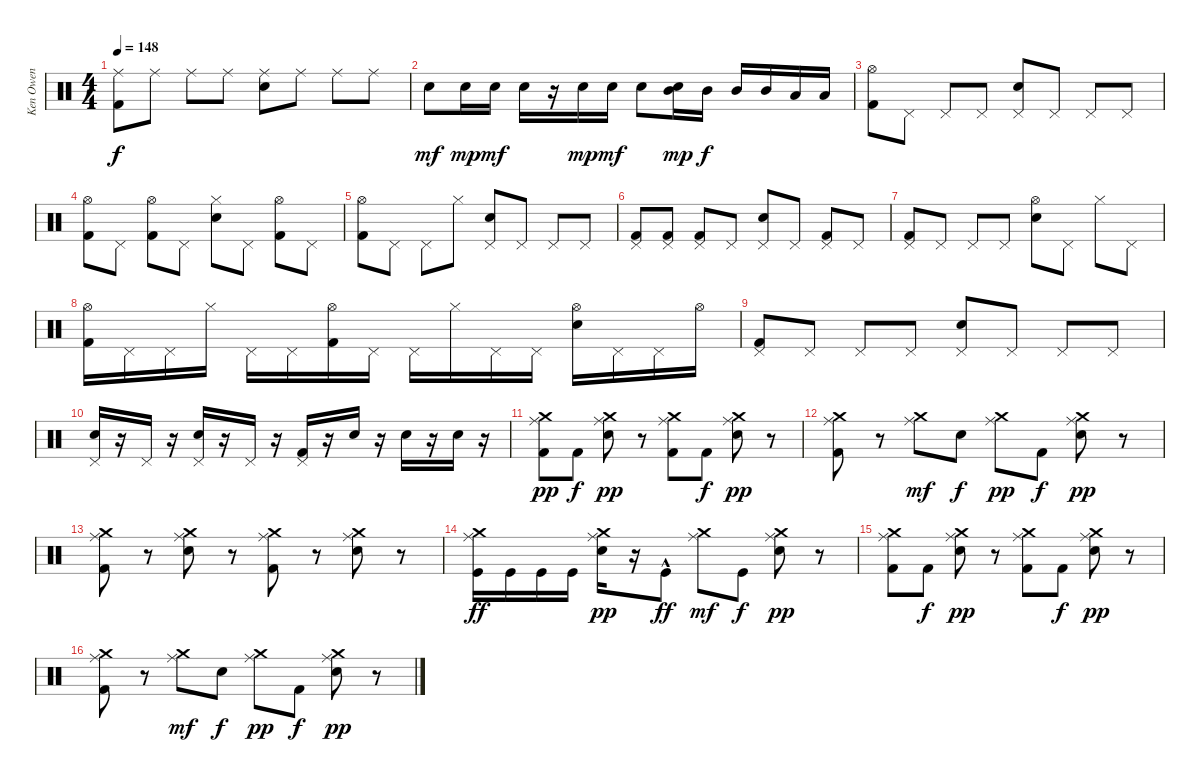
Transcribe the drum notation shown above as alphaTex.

\track ("Ken Owen" "Ken Owen") {instrument percussion}
\staff {score}
\articulation defaults
\ts (4 4)
\tempo 148
\clef neutral
\ks c
("Ride (middle)" "Kick (hit) 2").8{dy f} "Ride (middle)".8 "Ride (middle)".8 "Ride (middle)".8 ("Ride (middle)" "Electric Snare (hit)").8 "Ride (middle)".8 "Ride (middle)".8 "Ride (middle)".8 |
"Electric Snare (hit)".8{dy mf} "Electric Snare (hit)".16{dy mp} "Electric Snare (hit)".16{dy mf} "Electric Snare (hit)".16 r.16 "Electric Snare (hit)".16{dy mp} "Electric Snare (hit)".16{dy mf} "Electric Snare (hit)".8 ("Electric Snare (hit)" "Mid Tom (hit)").16{dy mp} "Mid Tom (hit)".16{dy f} "Mid Tom (hit)".16 "Mid Tom (hit)".16 "Low Tom (hit)".16 "Low Tom (hit)".16 |
("Hi-Hat (open)" "Kick (hit) 2").8{balance 8} "Pedal Hi-Hat (hit)".8 "Pedal Hi-Hat (hit)".8 "Pedal Hi-Hat (hit)".8 ("Pedal Hi-Hat (hit)" "Electric Snare (hit)").8 "Pedal Hi-Hat (hit)".8 "Pedal Hi-Hat (hit)".8 "Pedal Hi-Hat (hit)".8 |
("Hi-Hat (open)" "Kick (hit) 2").8 "Pedal Hi-Hat (hit)".8 ("Hi-Hat (open)" "Kick (hit) 2").8 "Pedal Hi-Hat (hit)".8 ("Hi-Hat (closed)" "Electric Snare (hit)").8 "Pedal Hi-Hat (hit)".8 ("Hi-Hat (open)" "Kick (hit) 2").8 "Pedal Hi-Hat (hit)".8 |
("Hi-Hat (open)" "Kick (hit) 2").8 "Pedal Hi-Hat (hit)".8 "Pedal Hi-Hat (hit)".8 "Hi-Hat (closed)".8 ("Pedal Hi-Hat (hit)" "Electric Snare (hit)").8 "Pedal Hi-Hat (hit)".8 "Pedal Hi-Hat (hit)".8 "Pedal Hi-Hat (hit)".8 |
("Pedal Hi-Hat (hit)" "Kick (hit) 2").8 ("Pedal Hi-Hat (hit)" "Kick (hit) 2").8 ("Pedal Hi-Hat (hit)" "Kick (hit) 2").8 "Pedal Hi-Hat (hit)".8 ("Pedal Hi-Hat (hit)" "Electric Snare (hit)").8 "Pedal Hi-Hat (hit)".8 ("Pedal Hi-Hat (hit)" "Kick (hit) 2").8 "Pedal Hi-Hat (hit)".8 |
("Pedal Hi-Hat (hit)" "Kick (hit) 2").8 "Pedal Hi-Hat (hit)".8 "Pedal Hi-Hat (hit)".8 "Pedal Hi-Hat (hit)".8 ("Hi-Hat (open)" "Electric Snare (hit)").8 "Pedal Hi-Hat (hit)".8 "Hi-Hat (closed)".8 "Pedal Hi-Hat (hit)".8 |
("Hi-Hat (open)" "Kick (hit) 2").16 "Pedal Hi-Hat (hit)".16 "Pedal Hi-Hat (hit)".16 "Hi-Hat (closed)".16 "Pedal Hi-Hat (hit)".16 "Pedal Hi-Hat (hit)".16 ("Hi-Hat (open)" "Kick (hit) 2").16 "Pedal Hi-Hat (hit)".16 "Pedal Hi-Hat (hit)".16 "Hi-Hat (closed)".16 "Pedal Hi-Hat (hit)".16 "Pedal Hi-Hat (hit)".16 ("Hi-Hat (open)" "Electric Snare (hit)").16 "Pedal Hi-Hat (hit)".16 "Pedal Hi-Hat (hit)".16 "Hi-Hat (open)".16 |
("Pedal Hi-Hat (hit)" "Kick (hit) 2").8 "Pedal Hi-Hat (hit)".8 "Pedal Hi-Hat (hit)".8 "Pedal Hi-Hat (hit)".8 ("Pedal Hi-Hat (hit)" "Electric Snare (hit)").8 "Pedal Hi-Hat (hit)".8 "Pedal Hi-Hat (hit)".8 "Pedal Hi-Hat (hit)".8 |
("Pedal Hi-Hat (hit)" "Electric Snare (hit)").16 r.16 "Pedal Hi-Hat (hit)".16 r.16 ("Pedal Hi-Hat (hit)" "Electric Snare (hit)").16 r.16 "Pedal Hi-Hat (hit)".16 r.16 ("Pedal Hi-Hat (hit)" "Kick (hit) 2").16 r.16 "Electric Snare (hit)".16 r.16 "Electric Snare (hit)".16 r.16 "Electric Snare (hit)".16 r.16 |
("Crash medium (hit)" "Ride (middle)" "Kick (hit) 2").8{dy pp} "Kick (hit) 2".8{dy f} ("Crash medium (hit)" "Ride (middle)" "Electric Snare (hit)").8{dy pp} r.8 ("Crash medium (hit)" "Ride (middle)" "Kick (hit) 2").8 "Kick (hit) 2".8{dy f} ("Crash medium (hit)" "Ride (middle)" "Electric Snare (hit)").8{dy pp} r.8 |
("Crash medium (hit)" "Ride (middle)" "Kick (hit) 2").8 r.8 ("Crash medium (hit)" "Ride (middle)").8{dy mf} "Electric Snare (hit)".8{dy f} ("Crash medium (hit)" "Ride (middle)").8{dy pp} "Kick (hit) 2".8{dy f} ("Crash medium (hit)" "Ride (middle)" "Electric Snare (hit)").8{dy pp} r.8 |
("Crash medium (hit)" "Ride (middle)" "Kick (hit) 2").8 r.8 ("Crash medium (hit)" "Ride (middle)" "Electric Snare (hit)").8 r.8 ("Crash medium (hit)" "Ride (middle)" "Kick (hit) 2").8 r.8 ("Crash medium (hit)" "Ride (middle)" "Electric Snare (hit)").8 r.8 |
("Crash medium (hit)" "Ride (middle)" "Kick (hit)").16{dy ff} "Kick (hit)".16 "Kick (hit)".16 "Kick (hit)".16 ("Crash medium (hit)" "Ride (middle)" "Electric Snare (hit)").16{dy pp} r.16 "Kick (hit)"{hac}.8{dy ff} ("Crash medium (hit)" "Ride (middle)").8{dy mf} "Kick (hit)".8{dy f} ("Crash medium (hit)" "Ride (middle)" "Electric Snare (hit)").8{dy pp} r.8 |
("Crash medium (hit)" "Ride (middle)" "Kick (hit) 2").8 "Kick (hit) 2".8{dy f} ("Crash medium (hit)" "Ride (middle)" "Electric Snare (hit)").8{dy pp} r.8 ("Crash medium (hit)" "Ride (middle)" "Kick (hit) 2").8 "Kick (hit) 2".8{dy f} ("Crash medium (hit)" "Ride (middle)" "Electric Snare (hit)").8{dy pp} r.8 |
("Crash medium (hit)" "Ride (middle)" "Kick (hit) 2").8 r.8 ("Crash medium (hit)" "Ride (middle)").8{dy mf} "Electric Snare (hit)".8{dy f} ("Crash medium (hit)" "Ride (middle)").8{dy pp} "Kick (hit) 2".8{dy f} ("Crash medium (hit)" "Ride (middle)" "Electric Snare (hit)").8{dy pp} r.8
